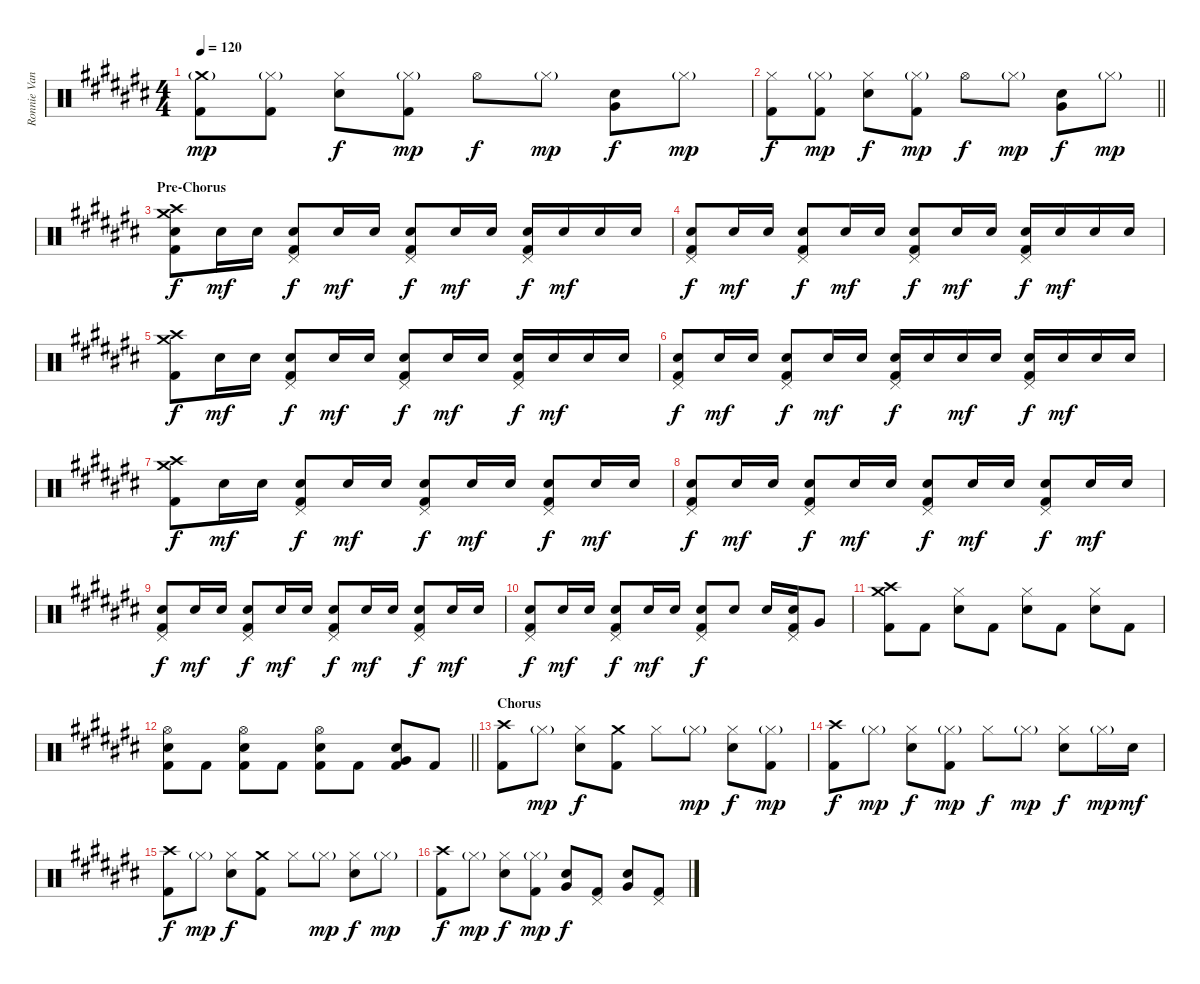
\track ("Ronnie Vannucci Jr. drums" "Ronnie Van") {instrument percussion}
\staff {score}
\articulation defaults
\ts (4 4)
\tempo 120
\clef neutral
\ks c#
("Crash medium (hit)"{g} "Kick (hit) 2").8{dy mp} ("Hi-Hat (closed)"{g} "Kick (hit) 2").8 ("Hi-Hat (closed)" "Electric Snare (hit)").8{dy f} ("Hi-Hat (closed)"{g} "Kick (hit) 2").8{dy mp} "Hi-Hat (open)".8{dy f} "Hi-Hat (closed)"{g}.8{dy mp} ("Very Low Tom (hit)" "Electric Snare (hit)").8{dy f} "Hi-Hat (closed)"{g}.8{dy mp} |
\barLineRight lightlight
("Hi-Hat (closed)" "Kick (hit) 2").8{dy f} ("Hi-Hat (closed)"{g} "Kick (hit) 2").8{dy mp} ("Hi-Hat (closed)" "Electric Snare (hit)").8{dy f} ("Hi-Hat (closed)"{g} "Kick (hit) 2").8{dy mp} "Hi-Hat (open)".8{dy f} "Hi-Hat (closed)"{g}.8{dy mp} ("Very Low Tom (hit)" "Electric Snare (hit)").8{dy f} "Hi-Hat (closed)"{g}.8{dy mp} |
\section ("" "Pre-Chorus")
("Crash high (hit)" "Crash medium (hit)" "Electric Snare (hit)" "Kick (hit) 2").8{dy f} "Electric Snare (hit)".16{dy mf} "Electric Snare (hit)".16 ("Pedal Hi-Hat (hit)" "Electric Snare (hit)" "Kick (hit) 2").8{dy f} "Electric Snare (hit)".16{dy mf} "Electric Snare (hit)".16 ("Pedal Hi-Hat (hit)" "Electric Snare (hit)" "Kick (hit) 2").8{dy f} "Electric Snare (hit)".16{dy mf} "Electric Snare (hit)".16 ("Pedal Hi-Hat (hit)" "Electric Snare (hit)" "Kick (hit) 2").16{dy f} "Electric Snare (hit)".16{dy mf} "Electric Snare (hit)".16 "Electric Snare (hit)".16 |
("Pedal Hi-Hat (hit)" "Electric Snare (hit)" "Kick (hit) 2").8{dy f} "Electric Snare (hit)".16{dy mf} "Electric Snare (hit)".16 ("Pedal Hi-Hat (hit)" "Electric Snare (hit)" "Kick (hit) 2").8{dy f} "Electric Snare (hit)".16{dy mf} "Electric Snare (hit)".16 ("Pedal Hi-Hat (hit)" "Electric Snare (hit)" "Kick (hit) 2").8{dy f} "Electric Snare (hit)".16{dy mf} "Electric Snare (hit)".16 ("Pedal Hi-Hat (hit)" "Electric Snare (hit)" "Kick (hit) 2").16{dy f} "Electric Snare (hit)".16{dy mf} "Electric Snare (hit)".16 "Electric Snare (hit)".16 |
("Crash high (hit)" "Crash medium (hit)" "Kick (hit) 2").8{dy f} "Electric Snare (hit)".16{dy mf} "Electric Snare (hit)".16 ("Pedal Hi-Hat (hit)" "Electric Snare (hit)" "Kick (hit) 2").8{dy f} "Electric Snare (hit)".16{dy mf} "Electric Snare (hit)".16 ("Pedal Hi-Hat (hit)" "Electric Snare (hit)" "Kick (hit) 2").8{dy f} "Electric Snare (hit)".16{dy mf} "Electric Snare (hit)".16 ("Pedal Hi-Hat (hit)" "Electric Snare (hit)" "Kick (hit) 2").16{dy f} "Electric Snare (hit)".16{dy mf} "Electric Snare (hit)".16 "Electric Snare (hit)".16 |
("Pedal Hi-Hat (hit)" "Electric Snare (hit)" "Kick (hit) 2").8{dy f} "Electric Snare (hit)".16{dy mf} "Electric Snare (hit)".16 ("Pedal Hi-Hat (hit)" "Electric Snare (hit)" "Kick (hit) 2").8{dy f} "Electric Snare (hit)".16{dy mf} "Electric Snare (hit)".16 ("Pedal Hi-Hat (hit)" "Electric Snare (hit)" "Kick (hit) 2").16{dy f} "Electric Snare (hit)".16 "Electric Snare (hit)".16{dy mf} "Electric Snare (hit)".16 ("Pedal Hi-Hat (hit)" "Electric Snare (hit)" "Kick (hit) 2").16{dy f} "Electric Snare (hit)".16{dy mf} "Electric Snare (hit)".16 "Electric Snare (hit)".16 |
("Crash medium (hit)" "Crash high (hit)" "Kick (hit) 2").8{dy f} "Electric Snare (hit)".16{dy mf} "Electric Snare (hit)".16 ("Pedal Hi-Hat (hit)" "Electric Snare (hit)" "Kick (hit) 2").8{dy f} "Electric Snare (hit)".16{dy mf} "Electric Snare (hit)".16 ("Pedal Hi-Hat (hit)" "Electric Snare (hit)" "Kick (hit) 2").8{dy f} "Electric Snare (hit)".16{dy mf} "Electric Snare (hit)".16 ("Pedal Hi-Hat (hit)" "Electric Snare (hit)" "Kick (hit) 2").8{dy f} "Electric Snare (hit)".16{dy mf} "Electric Snare (hit)".16 |
("Pedal Hi-Hat (hit)" "Electric Snare (hit)" "Kick (hit) 2").8{dy f} "Electric Snare (hit)".16{dy mf} "Electric Snare (hit)".16 ("Pedal Hi-Hat (hit)" "Electric Snare (hit)" "Kick (hit) 2").8{dy f} "Electric Snare (hit)".16{dy mf} "Electric Snare (hit)".16 ("Pedal Hi-Hat (hit)" "Electric Snare (hit)" "Kick (hit) 2").8{dy f} "Electric Snare (hit)".16{dy mf} "Electric Snare (hit)".16 ("Pedal Hi-Hat (hit)" "Electric Snare (hit)" "Kick (hit) 2").8{dy f} "Electric Snare (hit)".16{dy mf} "Electric Snare (hit)".16 |
("Pedal Hi-Hat (hit)" "Electric Snare (hit)" "Kick (hit) 2").8{dy f} "Electric Snare (hit)".16{dy mf} "Electric Snare (hit)".16 ("Pedal Hi-Hat (hit)" "Electric Snare (hit)" "Kick (hit) 2").8{dy f} "Electric Snare (hit)".16{dy mf} "Electric Snare (hit)".16 ("Pedal Hi-Hat (hit)" "Electric Snare (hit)" "Kick (hit) 2").8{dy f} "Electric Snare (hit)".16{dy mf} "Electric Snare (hit)".16 ("Pedal Hi-Hat (hit)" "Electric Snare (hit)" "Kick (hit) 2").8{dy f} "Electric Snare (hit)".16{dy mf} "Electric Snare (hit)".16 |
("Pedal Hi-Hat (hit)" "Electric Snare (hit)" "Kick (hit) 2").8{dy f} "Electric Snare (hit)".16{dy mf} "Electric Snare (hit)".16 ("Pedal Hi-Hat (hit)" "Electric Snare (hit)" "Kick (hit) 2").8{dy f} "Electric Snare (hit)".16{dy mf} "Electric Snare (hit)".16 ("Pedal Hi-Hat (hit)" "Electric Snare (hit)" "Kick (hit) 2").8{dy f} "Electric Snare (hit)".8 "Electric Snare (hit)".16 ("Pedal Hi-Hat (hit)" "Electric Snare (hit)" "Kick (hit) 2").16 "Very Low Tom (hit)".8 |
("Crash high (hit)" "Crash medium (hit)" "Kick (hit) 2").8 "Kick (hit) 2".8 ("Hi-Hat (closed)" "Electric Snare (hit)").8 "Kick (hit) 2".8 ("Hi-Hat (closed)" "Electric Snare (hit)").8 "Kick (hit) 2".8 ("Hi-Hat (closed)" "Electric Snare (hit)").8 "Kick (hit) 2".8 |
\barLineRight lightlight
("Hi-Hat (open)" "Electric Snare (hit)" "Kick (hit) 2").8 "Kick (hit) 2".8 ("Hi-Hat (open)" "Electric Snare (hit)" "Kick (hit) 2").8 "Kick (hit) 2".8 ("Hi-Hat (open)" "Electric Snare (hit)" "Kick (hit) 2").8 "Kick (hit) 2".8 ("Very Low Tom (hit)" "Electric Snare (hit)" "Kick (hit) 2").8 "Kick (hit) 2".8 |
\section ("" "Chorus")
("Crash high (hit)" "Kick (hit) 2").8 "Hi-Hat (closed)"{g}.8{dy mp} ("Hi-Hat (closed)" "Electric Snare (hit)").8{dy f} ("Crash medium (hit)" "Kick (hit) 2").8 "Hi-Hat (closed)".8 "Hi-Hat (closed)"{g}.8{dy mp} ("Hi-Hat (closed)" "Electric Snare (hit)").8{dy f} ("Hi-Hat (closed)"{g} "Kick (hit) 2").8{dy mp} |
("Crash high (hit)" "Kick (hit) 2").8{dy f} "Hi-Hat (closed)"{g}.8{dy mp} ("Hi-Hat (closed)" "Electric Snare (hit)").8{dy f} ("Hi-Hat (closed)"{g} "Kick (hit) 2").8{dy mp} "Hi-Hat (closed)".8{dy f} "Hi-Hat (closed)"{g}.8{dy mp} ("Hi-Hat (closed)" "Electric Snare (hit)").8{dy f} "Hi-Hat (closed)"{g}.16{dy mp} "Electric Snare (hit)".16{dy mf} |
("Crash high (hit)" "Kick (hit) 2").8{dy f} "Hi-Hat (closed)"{g}.8{dy mp} ("Hi-Hat (closed)" "Electric Snare (hit)").8{dy f} ("Crash medium (hit)" "Kick (hit) 2").8 "Hi-Hat (closed)".8 "Hi-Hat (closed)"{g}.8{dy mp} ("Hi-Hat (closed)" "Electric Snare (hit)").8{dy f} "Hi-Hat (closed)"{g}.8{dy mp} |
("Crash high (hit)" "Kick (hit) 2").8{dy f} "Hi-Hat (closed)"{g}.8{dy mp} ("Hi-Hat (closed)" "Electric Snare (hit)").8{dy f} ("Hi-Hat (closed)"{g} "Kick (hit) 2").8{dy mp} ("Very Low Tom (hit)" "Electric Snare (hit)").8{dy f} ("Pedal Hi-Hat (hit)" "Kick (hit) 2").8 ("Very Low Tom (hit)" "Electric Snare (hit)").8 ("Pedal Hi-Hat (hit)" "Kick (hit) 2").8
